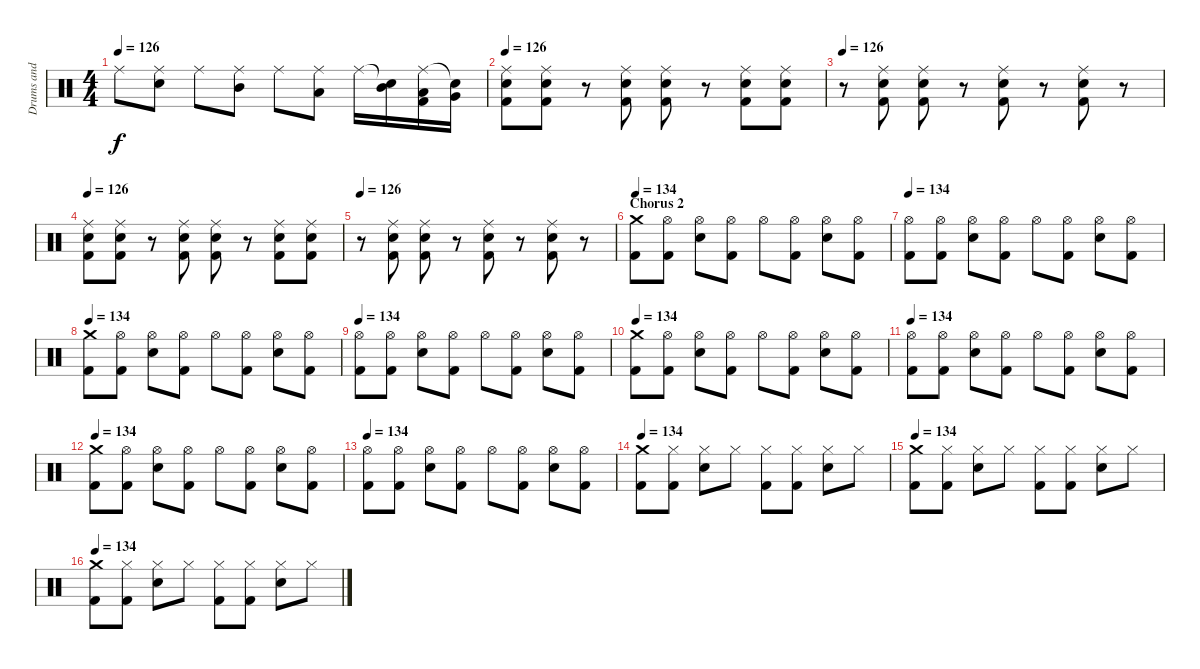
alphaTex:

\track ("Drums and Percussion" "Drums and ") {instrument percussion}
\staff {score}
\articulation defaults
\ts (4 4)
\tempo 126
\clef neutral
\ks c "Ride (middle)".8{dy f}
("Ride (middle)" "Electric Snare (hit)").8 "Ride (middle)".8 ("Ride (middle)" "Mid Tom (hit)").8 "Ride (middle)".8 ("Ride (middle)" "Low Tom (hit)").8 "Ride (middle)".16 ("Snare (hit)"{t} "Mid Tom (hit)").16 ("Ride (middle)" "Low Tom (hit)" "Kick (hit) 2").16 ("Snare (hit)"{t} "Very Low Tom (hit)").16 |
\tempo 126
("Ride (middle)" "Electric Snare (hit)" "Kick (hit) 2").8 ("Ride (middle)" "Electric Snare (hit)" "Kick (hit) 2").8 r.8 ("Ride (middle)" "Electric Snare (hit)" "Kick (hit) 2").8 ("Ride (middle)" "Electric Snare (hit)" "Kick (hit) 2").8 r.8 ("Ride (middle)" "Electric Snare (hit)" "Kick (hit) 2").8 ("Ride (middle)" "Electric Snare (hit)" "Kick (hit) 2").8 |
\tempo 126
r.8 ("Ride (middle)" "Electric Snare (hit)" "Kick (hit) 2").8 ("Ride (middle)" "Electric Snare (hit)" "Kick (hit) 2").8 r.8 ("Ride (middle)" "Electric Snare (hit)" "Kick (hit) 2").8 r.8 ("Ride (middle)" "Electric Snare (hit)" "Kick (hit) 2").8 r.8 |
\tempo 126
("Ride (middle)" "Electric Snare (hit)" "Kick (hit) 2").8 ("Ride (middle)" "Electric Snare (hit)" "Kick (hit) 2").8 r.8 ("Ride (middle)" "Electric Snare (hit)" "Kick (hit) 2").8 ("Ride (middle)" "Electric Snare (hit)" "Kick (hit) 2").8 r.8 ("Ride (middle)" "Electric Snare (hit)" "Kick (hit) 2").8 ("Ride (middle)" "Electric Snare (hit)" "Kick (hit) 2").8 |
\tempo 126
r.8 ("Ride (middle)" "Electric Snare (hit)" "Kick (hit) 2").8 ("Ride (middle)" "Electric Snare (hit)" "Kick (hit) 2").8 r.8 ("Ride (middle)" "Electric Snare (hit)" "Kick (hit) 2").8 r.8 ("Ride (middle)" "Electric Snare (hit)" "Kick (hit) 2").8 r.8 |
\section ("" "Chorus 2")
\tempo 134
("Crash medium (hit)" "Kick (hit) 2").8 ("Hi-Hat (open)" "Kick (hit) 2").8 ("Hi-Hat (open)" "Electric Snare (hit)").8 ("Hi-Hat (open)" "Kick (hit) 2").8 "Hi-Hat (open)".8 ("Hi-Hat (open)" "Kick (hit) 2").8 ("Hi-Hat (open)" "Electric Snare (hit)").8 ("Hi-Hat (open)" "Kick (hit) 2").8 |
\tempo 134
("Hi-Hat (open)" "Kick (hit) 2").8 ("Hi-Hat (open)" "Kick (hit) 2").8 ("Hi-Hat (open)" "Electric Snare (hit)").8 ("Hi-Hat (open)" "Kick (hit) 2").8 "Hi-Hat (open)".8 ("Hi-Hat (open)" "Kick (hit) 2").8 ("Hi-Hat (open)" "Electric Snare (hit)").8 ("Hi-Hat (open)" "Kick (hit) 2").8 |
\tempo 134
("Crash medium (hit)" "Kick (hit) 2").8 ("Hi-Hat (open)" "Kick (hit) 2").8 ("Hi-Hat (open)" "Electric Snare (hit)").8 ("Hi-Hat (open)" "Kick (hit) 2").8 "Hi-Hat (open)".8 ("Hi-Hat (open)" "Kick (hit) 2").8 ("Hi-Hat (open)" "Electric Snare (hit)").8 ("Hi-Hat (open)" "Kick (hit) 2").8 |
\tempo 134
("Hi-Hat (open)" "Kick (hit) 2").8 ("Hi-Hat (open)" "Kick (hit) 2").8 ("Hi-Hat (open)" "Electric Snare (hit)").8 ("Hi-Hat (open)" "Kick (hit) 2").8 "Hi-Hat (open)".8 ("Hi-Hat (open)" "Kick (hit) 2").8 ("Hi-Hat (open)" "Electric Snare (hit)").8 ("Hi-Hat (open)" "Kick (hit) 2").8 |
\tempo 134
("Crash medium (hit)" "Kick (hit) 2").8 ("Hi-Hat (open)" "Kick (hit) 2").8 ("Hi-Hat (open)" "Electric Snare (hit)").8 ("Hi-Hat (open)" "Kick (hit) 2").8 "Hi-Hat (open)".8 ("Hi-Hat (open)" "Kick (hit) 2").8 ("Hi-Hat (open)" "Electric Snare (hit)").8 ("Hi-Hat (open)" "Kick (hit) 2").8 |
\tempo 134
("Hi-Hat (open)" "Kick (hit) 2").8 ("Hi-Hat (open)" "Kick (hit) 2").8 ("Hi-Hat (open)" "Electric Snare (hit)").8 ("Hi-Hat (open)" "Kick (hit) 2").8 "Hi-Hat (open)".8 ("Hi-Hat (open)" "Kick (hit) 2").8 ("Hi-Hat (open)" "Electric Snare (hit)").8 ("Hi-Hat (open)" "Kick (hit) 2").8 |
\tempo 134
("Crash medium (hit)" "Kick (hit) 2").8 ("Hi-Hat (open)" "Kick (hit) 2").8 ("Hi-Hat (open)" "Electric Snare (hit)").8 ("Hi-Hat (open)" "Kick (hit) 2").8 "Hi-Hat (open)".8 ("Hi-Hat (open)" "Kick (hit) 2").8 ("Hi-Hat (open)" "Electric Snare (hit)").8 ("Hi-Hat (open)" "Kick (hit) 2").8 |
\tempo 134
("Hi-Hat (open)" "Kick (hit) 2").8 ("Hi-Hat (open)" "Kick (hit) 2").8 ("Hi-Hat (open)" "Electric Snare (hit)").8 ("Hi-Hat (open)" "Kick (hit) 2").8 "Hi-Hat (open)".8 ("Hi-Hat (open)" "Kick (hit) 2").8 ("Hi-Hat (open)" "Electric Snare (hit)").8 ("Hi-Hat (open)" "Kick (hit) 2").8 |
\tempo 134
("Crash medium (hit)" "Kick (hit) 2").8 ("Hi-Hat (closed)" "Kick (hit) 2").8 ("Hi-Hat (closed)" "Electric Snare (hit)").8 "Hi-Hat (closed)".8 ("Hi-Hat (closed)" "Kick (hit) 2").8 ("Hi-Hat (closed)" "Kick (hit) 2").8 ("Hi-Hat (closed)" "Electric Snare (hit)").8 "Hi-Hat (closed)".8 |
\tempo 134
("Crash medium (hit)" "Kick (hit) 2").8 ("Hi-Hat (closed)" "Kick (hit) 2").8 ("Hi-Hat (closed)" "Electric Snare (hit)").8 "Hi-Hat (closed)".8 ("Hi-Hat (closed)" "Kick (hit) 2").8 ("Hi-Hat (closed)" "Kick (hit) 2").8 ("Hi-Hat (closed)" "Electric Snare (hit)").8 "Hi-Hat (closed)".8 |
\tempo 134
("Crash medium (hit)" "Kick (hit) 2").8 ("Hi-Hat (closed)" "Kick (hit) 2").8 ("Hi-Hat (closed)" "Electric Snare (hit)").8 "Hi-Hat (closed)".8 ("Hi-Hat (closed)" "Kick (hit) 2").8 ("Hi-Hat (closed)" "Kick (hit) 2").8 ("Hi-Hat (closed)" "Electric Snare (hit)").8 "Hi-Hat (closed)".8
